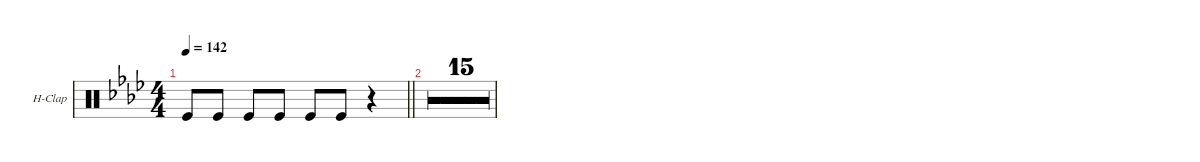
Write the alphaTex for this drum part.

\defaultSystemsLayout 4
\hideDynamics
\bracketExtendMode groupsimilarinstruments
\firstSystemTrackNameOrientation horizontal
\otherSystemsTrackNameOrientation horizontal
\track ("Hand Clap" "H-Clap") {multiBarRest instrument percussion}
\staff {score}
\articulation defaults
\ts (4 4)
\tempo 142
\clef neutral
\barLineRight lightlight
\ks ab "Kick (hit)".8{dy fff} "Kick (hit)".8 "Kick (hit)".8 "Kick (hit)".8 "Kick (hit)".8 "Kick (hit)".8
r.4 |
r.1 |
r.1 |
r.1 |
r.1 |
r.1 |
r.1 |
r.1 |
\barLineRight lightlight
r.1 |
r.1 |
r.1 |
r.1 |
r.1 |
r.1 |
r.1 |
r.1
